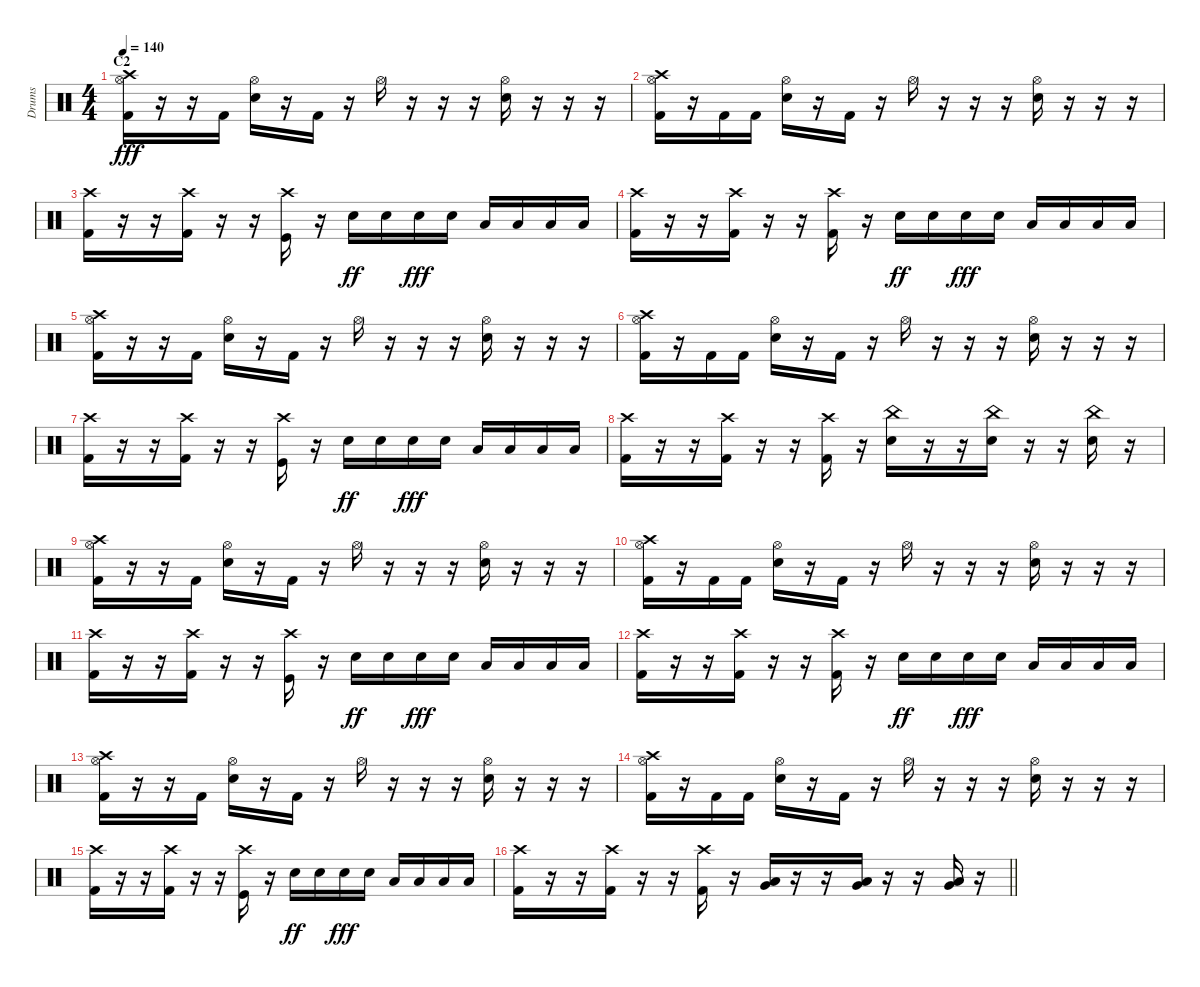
\track ("Drums" "Drums") {instrument percussion}
\staff {score}
\articulation defaults
\ts (4 4)
\section ("" "C2")
\tempo 140
\clef neutral
\ks c
("Crash high (hit)" "Hi-Hat (open)" "Kick (hit) 2").16{dy fff} r.16 r.16 "Kick (hit) 2".16 ("Hi-Hat (open)" "Snare (hit) 2").16 r.16 "Kick (hit) 2".16 r.16 "Hi-Hat (open)".16 r.16 r.16 r.16 ("Hi-Hat (open)" "Snare (hit) 2").16 r.16 r.16 r.16 |
("Crash high (hit)" "Hi-Hat (open)" "Kick (hit) 2").16 r.16 "Kick (hit) 2".16 "Kick (hit) 2".16 ("Hi-Hat (open)" "Snare (hit) 2").16 r.16 "Kick (hit) 2".16 r.16 "Hi-Hat (open)".16 r.16 r.16 r.16 ("Hi-Hat (open)" "Snare (hit) 2").16 r.16 r.16 r.16 |
("Crash high (hit)" "Kick (hit) 2").16 r.16 r.16 ("Crash high (hit)" "Kick (hit) 2").16 r.16 r.16 ("Crash high (hit)" "Kick (hit)").16 r.16 "Snare (hit) 2".16{dy ff} "Snare (hit) 2".16 "Snare (hit) 2".16{dy fff} "Snare (hit) 2".16 "Low Tom (hit)".16 "Low Tom (hit)".16 "Low Tom (hit)".16 "Low Tom (hit)".16 |
("Crash high (hit)" "Kick (hit) 2").16 r.16 r.16 ("Crash high (hit)" "Kick (hit) 2").16 r.16 r.16 ("Crash high (hit)" "Kick (hit) 2").16 r.16 "Snare (hit) 2".16{dy ff} "Snare (hit) 2".16 "Snare (hit) 2".16{dy fff} "Snare (hit) 2".16 "Low Tom (hit)".16 "Low Tom (hit)".16 "Low Tom (hit)".16 "Low Tom (hit)".16 |
("Crash high (hit)" "Hi-Hat (open)" "Kick (hit) 2").16 r.16 r.16 "Kick (hit) 2".16 ("Hi-Hat (open)" "Snare (hit) 2").16 r.16 "Kick (hit) 2".16 r.16 "Hi-Hat (open)".16 r.16 r.16 r.16 ("Hi-Hat (open)" "Snare (hit) 2").16 r.16 r.16 r.16 |
("Crash high (hit)" "Hi-Hat (open)" "Kick (hit) 2").16 r.16 "Kick (hit) 2".16 "Kick (hit) 2".16 ("Hi-Hat (open)" "Snare (hit) 2").16 r.16 "Kick (hit) 2".16 r.16 "Hi-Hat (open)".16 r.16 r.16 r.16 ("Hi-Hat (open)" "Snare (hit) 2").16 r.16 r.16 r.16 |
("Crash high (hit)" "Kick (hit) 2").16 r.16 r.16 ("Crash high (hit)" "Kick (hit) 2").16 r.16 r.16 ("Crash high (hit)" "Kick (hit)").16 r.16 "Snare (hit) 2".16{dy ff} "Snare (hit) 2".16 "Snare (hit) 2".16{dy fff} "Snare (hit) 2".16 "Low Tom (hit)".16 "Low Tom (hit)".16 "Low Tom (hit)".16 "Low Tom (hit)".16 |
("Crash high (hit)" "Kick (hit) 2").16 r.16 r.16 ("Crash high (hit)" "Kick (hit) 2").16 r.16 r.16 ("Crash high (hit)" "Kick (hit) 2").16 r.16 ("China (hit)" "Snare (hit) 2").16 r.16 r.16 ("China (hit)" "Snare (hit) 2").16 r.16 r.16 ("China (hit)" "Snare (hit) 2").16 r.16 |
("Crash high (hit)" "Hi-Hat (open)" "Kick (hit) 2").16 r.16 r.16 "Kick (hit) 2".16 ("Hi-Hat (open)" "Snare (hit) 2").16 r.16 "Kick (hit) 2".16 r.16 "Hi-Hat (open)".16 r.16 r.16 r.16 ("Hi-Hat (open)" "Snare (hit) 2").16 r.16 r.16 r.16 |
("Crash high (hit)" "Hi-Hat (open)" "Kick (hit) 2").16 r.16 "Kick (hit) 2".16 "Kick (hit) 2".16 ("Hi-Hat (open)" "Snare (hit) 2").16 r.16 "Kick (hit) 2".16 r.16 "Hi-Hat (open)".16 r.16 r.16 r.16 ("Hi-Hat (open)" "Snare (hit) 2").16 r.16 r.16 r.16 |
("Crash high (hit)" "Kick (hit) 2").16 r.16 r.16 ("Crash high (hit)" "Kick (hit) 2").16 r.16 r.16 ("Crash high (hit)" "Kick (hit)").16 r.16 "Snare (hit) 2".16{dy ff} "Snare (hit) 2".16 "Snare (hit) 2".16{dy fff} "Snare (hit) 2".16 "Low Tom (hit)".16 "Low Tom (hit)".16 "Low Tom (hit)".16 "Low Tom (hit)".16 |
("Crash high (hit)" "Kick (hit) 2").16 r.16 r.16 ("Crash high (hit)" "Kick (hit) 2").16 r.16 r.16 ("Crash high (hit)" "Kick (hit) 2").16 r.16 "Snare (hit) 2".16{dy ff} "Snare (hit) 2".16 "Snare (hit) 2".16{dy fff} "Snare (hit) 2".16 "Low Tom (hit)".16 "Low Tom (hit)".16 "Low Tom (hit)".16 "Low Tom (hit)".16 |
("Crash high (hit)" "Hi-Hat (open)" "Kick (hit) 2").16 r.16 r.16 "Kick (hit) 2".16 ("Hi-Hat (open)" "Snare (hit) 2").16 r.16 "Kick (hit) 2".16 r.16 "Hi-Hat (open)".16 r.16 r.16 r.16 ("Hi-Hat (open)" "Snare (hit) 2").16 r.16 r.16 r.16 |
("Crash high (hit)" "Hi-Hat (open)" "Kick (hit) 2").16 r.16 "Kick (hit) 2".16 "Kick (hit) 2".16 ("Hi-Hat (open)" "Snare (hit) 2").16 r.16 "Kick (hit) 2".16 r.16 "Hi-Hat (open)".16 r.16 r.16 r.16 ("Hi-Hat (open)" "Snare (hit) 2").16 r.16 r.16 r.16 |
("Crash high (hit)" "Kick (hit) 2").16 r.16 r.16 ("Crash high (hit)" "Kick (hit) 2").16 r.16 r.16 ("Crash high (hit)" "Kick (hit)").16 r.16 "Snare (hit) 2".16{dy ff} "Snare (hit) 2".16 "Snare (hit) 2".16{dy fff} "Snare (hit) 2".16 "Low Tom (hit)".16 "Low Tom (hit)".16 "Low Tom (hit)".16 "Low Tom (hit)".16 |
\barLineRight lightlight
("Crash high (hit)" "Kick (hit) 2").16 r.16 r.16 ("Crash high (hit)" "Kick (hit) 2").16 r.16 r.16 ("Crash high (hit)" "Kick (hit) 2").16 r.16 ("Low Floor Tom (hit)" "Very Low Tom (hit)").16 r.16 r.16 ("Low Floor Tom (hit)" "Very Low Tom (hit)").16 r.16 r.16 ("Low Floor Tom (hit)" "Very Low Tom (hit)").16 r.16
